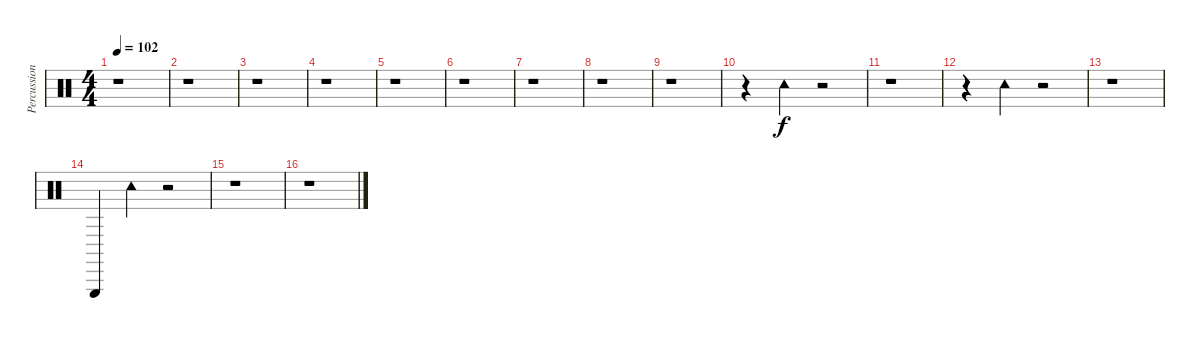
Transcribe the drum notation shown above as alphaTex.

\track ("Percussion" "Percussion") {instrument percussion}
\staff {score}
\articulation defaults
\ts (4 4)
\tempo 102
\clef neutral
\ks c
r.1{dy f} |
r.1 |
r.1 |
r.1 |
r.1 |
r.1 |
r.1 |
r.1 |
r.1 |
r.4 "Tambourine (hit)".4 r.2 |
r.1 |
r.4 "Tambourine (hit)".4 r.2 |
r.1 |
"Triangle (hit)".4 "Tambourine (hit)".4 r.2 |
r.1 |
r.1
